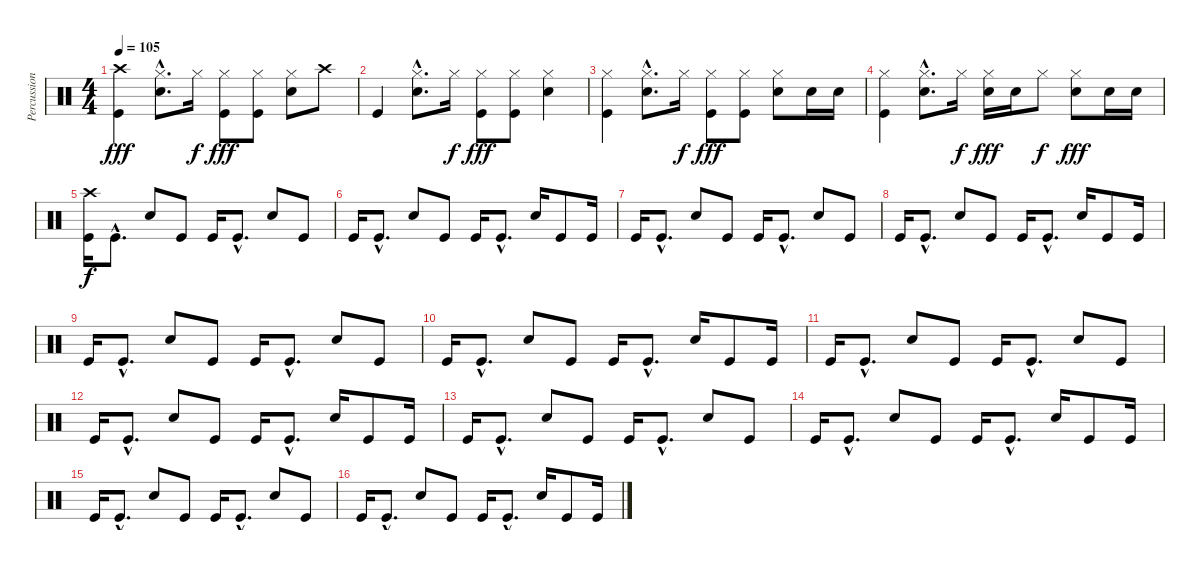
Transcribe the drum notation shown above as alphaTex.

\track ("Percussion" "Percussion") {instrument percussion}
\staff {score}
\articulation defaults
\ts (4 4)
\tempo 105
\clef neutral
\ks c
("Crash high (hit)" "Kick (hit)").4{dy fff} ("Hi-Hat (closed)"{hac} "Electric Snare (hit)"{hac}).8{d} "Hi-Hat (closed)".16{dy f} ("Hi-Hat (closed)" "Kick (hit)").8{dy fff} ("Hi-Hat (closed)" "Kick (hit)").8 ("Hi-Hat (closed)" "Electric Snare (hit)").8 "Crash high (hit)".8 |
"Kick (hit)".4 ("Hi-Hat (closed)"{hac} "Electric Snare (hit)"{hac}).8{d} "Hi-Hat (closed)".16{dy f} ("Hi-Hat (closed)" "Kick (hit)").8{dy fff} ("Hi-Hat (closed)" "Kick (hit)").8 ("Hi-Hat (closed)" "Electric Snare (hit)").4 |
("Hi-Hat (closed)" "Kick (hit)").4 ("Hi-Hat (closed)"{hac} "Electric Snare (hit)"{hac}).8{d} "Hi-Hat (closed)".16{dy f} ("Hi-Hat (closed)" "Kick (hit)").8{dy fff} ("Hi-Hat (closed)" "Kick (hit)").8 ("Hi-Hat (closed)" "Electric Snare (hit)").8 "Electric Snare (hit)".16 "Electric Snare (hit)".16 |
("Hi-Hat (closed)" "Kick (hit)").4 ("Hi-Hat (closed)"{hac} "Electric Snare (hit)"{hac}).8{d} "Hi-Hat (closed)".16{dy f} ("Hi-Hat (closed)" "Electric Snare (hit)").16{dy fff} "Electric Snare (hit)".16 "Hi-Hat (closed)".8{dy f} ("Hi-Hat (closed)" "Electric Snare (hit)").8{dy fff} "Electric Snare (hit)".16 "Electric Snare (hit)".16 |
("Crash high (hit)" "Kick (hit)").16{dy f} "Kick (hit)"{hac}.8{d} "Electric Snare (hit)".8 "Kick (hit)".8 "Kick (hit)".16 "Kick (hit)"{hac}.8{d} "Electric Snare (hit)".8 "Kick (hit)".8 |
"Kick (hit)".16 "Kick (hit)"{hac}.8{d} "Electric Snare (hit)".8 "Kick (hit)".8 "Kick (hit)".16 "Kick (hit)"{hac}.8{d} "Electric Snare (hit)".16 "Kick (hit)".8 "Kick (hit)".16 |
"Kick (hit)".16 "Kick (hit)"{hac}.8{d} "Electric Snare (hit)".8 "Kick (hit)".8 "Kick (hit)".16 "Kick (hit)"{hac}.8{d} "Electric Snare (hit)".8 "Kick (hit)".8 |
"Kick (hit)".16 "Kick (hit)"{hac}.8{d} "Electric Snare (hit)".8 "Kick (hit)".8 "Kick (hit)".16 "Kick (hit)"{hac}.8{d} "Electric Snare (hit)".16 "Kick (hit)".8 "Kick (hit)".16 |
"Kick (hit)".16 "Kick (hit)"{hac}.8{d} "Electric Snare (hit)".8 "Kick (hit)".8 "Kick (hit)".16 "Kick (hit)"{hac}.8{d} "Electric Snare (hit)".8 "Kick (hit)".8 |
"Kick (hit)".16 "Kick (hit)"{hac}.8{d} "Electric Snare (hit)".8 "Kick (hit)".8 "Kick (hit)".16 "Kick (hit)"{hac}.8{d} "Electric Snare (hit)".16 "Kick (hit)".8 "Kick (hit)".16 |
"Kick (hit)".16 "Kick (hit)"{hac}.8{d} "Electric Snare (hit)".8 "Kick (hit)".8 "Kick (hit)".16 "Kick (hit)"{hac}.8{d} "Electric Snare (hit)".8 "Kick (hit)".8 |
"Kick (hit)".16 "Kick (hit)"{hac}.8{d} "Electric Snare (hit)".8 "Kick (hit)".8 "Kick (hit)".16 "Kick (hit)"{hac}.8{d} "Electric Snare (hit)".16 "Kick (hit)".8 "Kick (hit)".16 |
"Kick (hit)".16 "Kick (hit)"{hac}.8{d} "Electric Snare (hit)".8 "Kick (hit)".8 "Kick (hit)".16 "Kick (hit)"{hac}.8{d} "Electric Snare (hit)".8 "Kick (hit)".8 |
"Kick (hit)".16 "Kick (hit)"{hac}.8{d} "Electric Snare (hit)".8 "Kick (hit)".8 "Kick (hit)".16 "Kick (hit)"{hac}.8{d} "Electric Snare (hit)".16 "Kick (hit)".8 "Kick (hit)".16 |
"Kick (hit)".16 "Kick (hit)"{hac}.8{d} "Electric Snare (hit)".8 "Kick (hit)".8 "Kick (hit)".16 "Kick (hit)"{hac}.8{d} "Electric Snare (hit)".8 "Kick (hit)".8 |
"Kick (hit)".16 "Kick (hit)"{hac}.8{d} "Electric Snare (hit)".8 "Kick (hit)".8 "Kick (hit)".16 "Kick (hit)"{hac}.8{d} "Electric Snare (hit)".16 "Kick (hit)".8 "Kick (hit)".16
